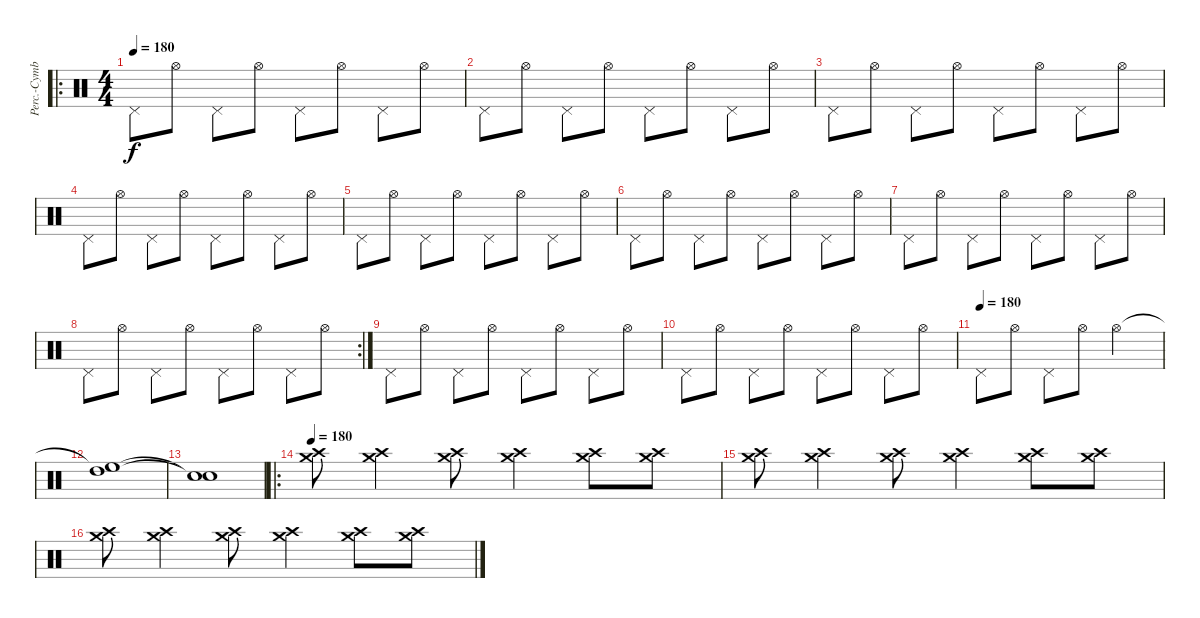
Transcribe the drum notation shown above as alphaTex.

\track ("Perc.-Cymbals 1" "Perc.-Cymb") {instrument percussion}
\staff {score}
\articulation defaults
\ro
\ts (4 4)
\tempo 180
\clef neutral
\ks c "Pedal Hi-Hat (hit)".8{dy f} "Hi-Hat (open)".8 "Pedal Hi-Hat (hit)".8 "Hi-Hat (open)".8 "Pedal Hi-Hat (hit)".8 "Hi-Hat (open)".8 "Pedal Hi-Hat (hit)".8 "Hi-Hat (open)".8
|
"Pedal Hi-Hat (hit)".8 "Hi-Hat (open)".8 "Pedal Hi-Hat (hit)".8 "Hi-Hat (open)".8 "Pedal Hi-Hat (hit)".8 "Hi-Hat (open)".8 "Pedal Hi-Hat (hit)".8 "Hi-Hat (open)".8 |
"Pedal Hi-Hat (hit)".8 "Hi-Hat (open)".8 "Pedal Hi-Hat (hit)".8 "Hi-Hat (open)".8 "Pedal Hi-Hat (hit)".8 "Hi-Hat (open)".8 "Pedal Hi-Hat (hit)".8 "Hi-Hat (open)".8 |
"Pedal Hi-Hat (hit)".8 "Hi-Hat (open)".8 "Pedal Hi-Hat (hit)".8 "Hi-Hat (open)".8 "Pedal Hi-Hat (hit)".8 "Hi-Hat (open)".8 "Pedal Hi-Hat (hit)".8 "Hi-Hat (open)".8 |
"Pedal Hi-Hat (hit)".8 "Hi-Hat (open)".8 "Pedal Hi-Hat (hit)".8 "Hi-Hat (open)".8 "Pedal Hi-Hat (hit)".8 "Hi-Hat (open)".8 "Pedal Hi-Hat (hit)".8 "Hi-Hat (open)".8 |
"Pedal Hi-Hat (hit)".8 "Hi-Hat (open)".8 "Pedal Hi-Hat (hit)".8 "Hi-Hat (open)".8 "Pedal Hi-Hat (hit)".8 "Hi-Hat (open)".8 "Pedal Hi-Hat (hit)".8 "Hi-Hat (open)".8 |
"Pedal Hi-Hat (hit)".8 "Hi-Hat (open)".8 "Pedal Hi-Hat (hit)".8 "Hi-Hat (open)".8 "Pedal Hi-Hat (hit)".8 "Hi-Hat (open)".8 "Pedal Hi-Hat (hit)".8 "Hi-Hat (open)".8 |
\rc 2 "Pedal Hi-Hat (hit)".8 "Hi-Hat (open)".8 "Pedal Hi-Hat (hit)".8 "Hi-Hat (open)".8 "Pedal Hi-Hat (hit)".8 "Hi-Hat (open)".8 "Pedal Hi-Hat (hit)".8 "Hi-Hat (open)".8
|
"Pedal Hi-Hat (hit)".8 "Hi-Hat (open)".8 "Pedal Hi-Hat (hit)".8 "Hi-Hat (open)".8 "Pedal Hi-Hat (hit)".8 "Hi-Hat (open)".8 "Pedal Hi-Hat (hit)".8 "Hi-Hat (open)".8 |
"Pedal Hi-Hat (hit)".8 "Hi-Hat (open)".8 "Pedal Hi-Hat (hit)".8 "Hi-Hat (open)".8 "Pedal Hi-Hat (hit)".8 "Hi-Hat (open)".8 "Pedal Hi-Hat (hit)".8 "Hi-Hat (open)".8 |
\tempo (180)
"Pedal Hi-Hat (hit)".8 "Hi-Hat (open)".8 "Pedal Hi-Hat (hit)".8 "Hi-Hat (open)".8 "Hi-Hat (open)".2 |
("High Floor Tom (hit)"{t} "High Tom (hit)").1 |
("Snare (hit)"{t} "Snare (hit)"{t}).1 |
\ro
\tempo 180
("Crash high (hit)" "Crash medium (hit)").8 ("Crash high (hit)" "Crash medium (hit)").4 ("Crash high (hit)" "Crash medium (hit)").8 ("Crash high (hit)" "Crash medium (hit)").4 ("Crash high (hit)" "Crash medium (hit)").8 ("Crash high (hit)" "Crash medium (hit)").8 |
("Crash high (hit)" "Crash medium (hit)").8 ("Crash high (hit)" "Crash medium (hit)").4 ("Crash high (hit)" "Crash medium (hit)").8 ("Crash high (hit)" "Crash medium (hit)").4 ("Crash high (hit)" "Crash medium (hit)").8 ("Crash high (hit)" "Crash medium (hit)").8 |
("Crash high (hit)" "Crash medium (hit)").8 ("Crash high (hit)" "Crash medium (hit)").4 ("Crash high (hit)" "Crash medium (hit)").8 ("Crash high (hit)" "Crash medium (hit)").4 ("Crash high (hit)" "Crash medium (hit)").8 ("Crash high (hit)" "Crash medium (hit)").8
